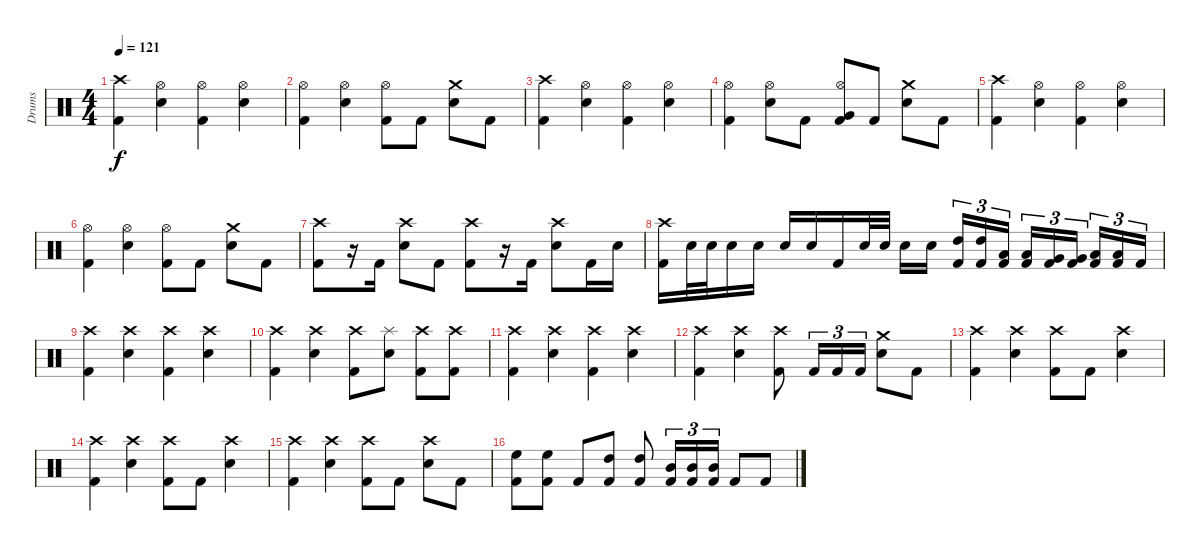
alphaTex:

\track ("Drums" "Drums") {instrument percussion}
\staff {score}
\articulation defaults
\ts (4 4)
\tempo 121
\clef neutral
\ks c
("Crash high (hit)" "Kick (hit) 2").4{dy f} ("Hi-Hat (open)" "Electric Snare (hit)").4 ("Hi-Hat (open)" "Kick (hit) 2").4 ("Hi-Hat (open)" "Electric Snare (hit)").4 |
("Hi-Hat (open)" "Kick (hit) 2").4 ("Hi-Hat (open)" "Electric Snare (hit)").4 ("Hi-Hat (open)" "Kick (hit) 2").8 "Kick (hit) 2".8 ("Crash medium (hit)" "Electric Snare (hit)").8 "Kick (hit) 2".8 |
("Crash high (hit)" "Kick (hit) 2").4 ("Hi-Hat (open)" "Electric Snare (hit)").4 ("Hi-Hat (open)" "Kick (hit) 2").4 ("Hi-Hat (open)" "Electric Snare (hit)").4 |
("Hi-Hat (open)" "Kick (hit) 2").4 ("Hi-Hat (open)" "Electric Snare (hit)").8 "Kick (hit) 2".8 ("Hi-Hat (open)" "Very Low Tom (hit)" "Kick (hit) 2").8 "Kick (hit) 2".8 ("Crash medium (hit)" "Electric Snare (hit)").8 "Kick (hit) 2".8 |
("Crash high (hit)" "Kick (hit) 2").4 ("Hi-Hat (open)" "Electric Snare (hit)").4 ("Hi-Hat (open)" "Kick (hit) 2").4 ("Hi-Hat (open)" "Electric Snare (hit)").4 |
("Hi-Hat (open)" "Kick (hit) 2").4 ("Hi-Hat (open)" "Electric Snare (hit)").4 ("Hi-Hat (open)" "Kick (hit) 2").8 "Kick (hit) 2".8 ("Crash medium (hit)" "Electric Snare (hit)").8 "Kick (hit) 2".8 |
("Crash high (hit)" "Kick (hit) 2").8 r.16 "Kick (hit) 2".16 ("Crash high (hit)" "Electric Snare (hit)").8 "Kick (hit) 2".8 ("Crash high (hit)" "Kick (hit) 2").8 r.16 "Kick (hit) 2".16 ("Crash high (hit)" "Electric Snare (hit)").8 "Kick (hit) 2".16 "Electric Snare (hit)".16 |
("Crash high (hit)" "Kick (hit) 2").16 "Electric Snare (hit)".32 "Electric Snare (hit)".32 "Electric Snare (hit)".16 "Electric Snare (hit)".16 "Electric Snare (hit)".16 "Electric Snare (hit)".16 "Kick (hit) 2".16 "Electric Snare (hit)".32 "Electric Snare (hit)".32 "Electric Snare (hit)".16 "Electric Snare (hit)".16 ("High Tom (hit)" "Kick (hit) 2").16{tu (3 2)} ("High Tom (hit)" "Kick (hit) 2").16{tu (3 2)} ("Low Tom (hit)" "Kick (hit) 2").16{tu (3 2)} ("Low Tom (hit)" "Kick (hit) 2").16{tu (3 2)} ("Very Low Tom (hit)" "Kick (hit) 2").16{tu (3 2)} ("Very Low Tom (hit)" "Kick (hit) 2").16{tu (3 2)} ("Low Floor Tom (hit)" "Kick (hit) 2").16{tu (3 2)} ("Low Floor Tom (hit)" "Kick (hit) 2").16{tu (3 2)} "Kick (hit) 2".16{tu (3 2)} |
("Crash high (hit)" "Kick (hit) 2").4 ("Crash high (hit)" "Electric Snare (hit)").4 ("Crash high (hit)" "Kick (hit) 2").4 ("Crash high (hit)" "Electric Snare (hit)").4 |
("Crash high (hit)" "Kick (hit) 2").4 ("Crash high (hit)" "Electric Snare (hit)").4 ("Crash high (hit)" "Kick (hit) 2").8 ("Splash (hit)" "Electric Snare (hit)").8 ("Crash high (hit)" "Kick (hit) 2").8 ("Crash high (hit)" "Kick (hit) 2").8 |
("Crash high (hit)" "Kick (hit) 2").4 ("Crash high (hit)" "Electric Snare (hit)").4 ("Crash high (hit)" "Kick (hit) 2").4 ("Crash high (hit)" "Electric Snare (hit)").4 |
("Crash high (hit)" "Kick (hit) 2").4 ("Crash high (hit)" "Electric Snare (hit)").4 ("Crash high (hit)" "Kick (hit) 2").8 "Kick (hit) 2".16{tu (3 2)} "Kick (hit) 2".16{tu (3 2)} "Kick (hit) 2".16{tu (3 2)} ("Crash medium (hit)" "Electric Snare (hit)").8 "Kick (hit) 2".8 |
("Crash high (hit)" "Kick (hit) 2").4 ("Crash high (hit)" "Electric Snare (hit)").4 ("Crash high (hit)" "Kick (hit) 2").8 "Kick (hit) 2".8 ("Crash high (hit)" "Electric Snare (hit)").4 |
("Crash high (hit)" "Kick (hit) 2").4 ("Crash high (hit)" "Electric Snare (hit)").4 ("Crash high (hit)" "Kick (hit) 2").8 "Kick (hit) 2".8 ("Crash high (hit)" "Electric Snare (hit)").4 |
("Crash high (hit)" "Kick (hit) 2").4 ("Crash high (hit)" "Electric Snare (hit)").4 ("Crash high (hit)" "Kick (hit) 2").8 "Kick (hit) 2".8 ("Crash high (hit)" "Electric Snare (hit)").8 "Kick (hit) 2".8 |
("High Floor Tom (hit)" "Kick (hit) 2").8 ("High Floor Tom (hit)" "Kick (hit) 2").8 "Kick (hit) 2".8 ("High Tom (hit)" "Kick (hit) 2").8 ("High Tom (hit)" "Kick (hit) 2").8 ("Mid Tom (hit)" "Kick (hit) 2").16{tu (3 2)} ("Mid Tom (hit)" "Kick (hit) 2").16{tu (3 2)} ("Mid Tom (hit)" "Kick (hit) 2").16{tu (3 2)} "Kick (hit) 2".8 "Kick (hit) 2".8
